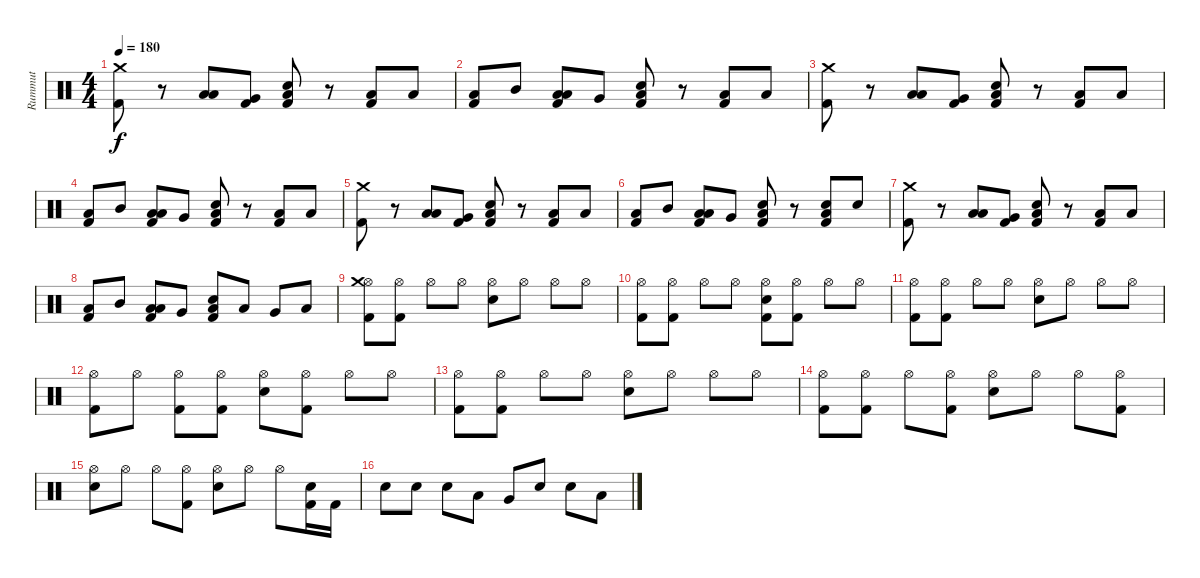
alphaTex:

\track ("Rummut" "Rummut") {instrument percussion}
\staff {score}
\articulation defaults
\ts (4 4)
\tempo 180
\clef neutral
\ks c
("Crash medium (hit)" "Kick (hit) 2").8{dy f} r.8 ("Low Floor Tom (hit)" "Low Tom (hit)").8 ("Very Low Tom (hit)" "Kick (hit) 2").8 ("Low Floor Tom (hit)" "Snare (hit) 2" "Kick (hit) 2").8 r.8 ("Low Floor Tom (hit)" "Kick (hit) 2").8 "Low Tom (hit)".8 |
("Low Floor Tom (hit)" "Kick (hit) 2").8 "Mid Tom (hit)".8 ("Low Floor Tom (hit)" "Low Tom (hit)" "Kick (hit) 2").8 "Very Low Tom (hit)".8 ("Low Floor Tom (hit)" "Snare (hit) 2" "Kick (hit) 2").8 r.8 ("Low Floor Tom (hit)" "Kick (hit) 2").8 "Low Tom (hit)".8 |
("Crash medium (hit)" "Kick (hit) 2").8 r.8 ("Low Floor Tom (hit)" "Low Tom (hit)").8 ("Very Low Tom (hit)" "Kick (hit) 2").8 ("Low Floor Tom (hit)" "Snare (hit) 2" "Kick (hit) 2").8 r.8 ("Low Floor Tom (hit)" "Kick (hit) 2").8 "Low Tom (hit)".8 |
("Low Floor Tom (hit)" "Kick (hit) 2").8 "Mid Tom (hit)".8 ("Low Floor Tom (hit)" "Low Tom (hit)" "Kick (hit) 2").8 "Very Low Tom (hit)".8 ("Low Floor Tom (hit)" "Snare (hit) 2" "Kick (hit) 2").8 r.8 ("Low Floor Tom (hit)" "Kick (hit) 2").8 "Low Tom (hit)".8 |
("Crash medium (hit)" "Kick (hit) 2").8 r.8 ("Low Floor Tom (hit)" "Low Tom (hit)").8 ("Very Low Tom (hit)" "Kick (hit) 2").8 ("Low Floor Tom (hit)" "Snare (hit) 2" "Kick (hit) 2").8 r.8 ("Low Floor Tom (hit)" "Kick (hit) 2").8 "Low Tom (hit)".8 |
("Low Floor Tom (hit)" "Kick (hit) 2").8 "Mid Tom (hit)".8 ("Low Floor Tom (hit)" "Low Tom (hit)" "Kick (hit) 2").8 "Very Low Tom (hit)".8 ("Low Floor Tom (hit)" "Snare (hit) 2" "Kick (hit) 2").8 r.8 ("Low Floor Tom (hit)" "Snare (hit) 2" "Kick (hit) 2").8 "Snare (hit) 2".8 |
("Crash medium (hit)" "Kick (hit) 2").8 r.8 ("Low Floor Tom (hit)" "Low Tom (hit)").8 ("Very Low Tom (hit)" "Kick (hit) 2").8 ("Low Floor Tom (hit)" "Snare (hit) 2" "Kick (hit) 2").8 r.8 ("Low Floor Tom (hit)" "Kick (hit) 2").8 "Low Tom (hit)".8 |
("Low Floor Tom (hit)" "Kick (hit) 2").8 "Mid Tom (hit)".8 ("Low Floor Tom (hit)" "Low Tom (hit)" "Kick (hit) 2").8 "Very Low Tom (hit)".8 ("Low Floor Tom (hit)" "Snare (hit) 2" "Kick (hit) 2").8 "Low Tom (hit)".8 "Very Low Tom (hit)".8 "Low Floor Tom (hit)".8 |
("Hi-Hat (open)" "Crash medium (hit)" "Kick (hit) 2").8 ("Hi-Hat (open)"{x} "Kick (hit) 2").8 "Hi-Hat (open)".8 "Hi-Hat (open)"{x}.8 ("Hi-Hat (open)" "Snare (hit) 2").8 "Hi-Hat (open)"{x}.8 "Hi-Hat (open)".8 "Hi-Hat (open)"{x}.8 |
("Hi-Hat (open)" "Kick (hit) 2").8 ("Hi-Hat (open)"{x} "Kick (hit) 2").8 "Hi-Hat (open)".8 "Hi-Hat (open)"{x}.8 ("Hi-Hat (open)" "Snare (hit) 2" "Kick (hit) 2").8 ("Hi-Hat (open)"{x} "Kick (hit) 2").8 "Hi-Hat (open)".8 "Hi-Hat (open)"{x}.8 |
("Hi-Hat (open)" "Kick (hit) 2").8 ("Hi-Hat (open)"{x} "Kick (hit) 2").8 "Hi-Hat (open)".8 "Hi-Hat (open)"{x}.8 ("Hi-Hat (open)" "Snare (hit) 2").8 "Hi-Hat (open)"{x}.8 "Hi-Hat (open)".8 "Hi-Hat (open)"{x}.8 |
("Hi-Hat (open)" "Kick (hit) 2").8 "Hi-Hat (open)"{x}.8 ("Hi-Hat (open)" "Kick (hit) 2").8 ("Hi-Hat (open)"{x} "Kick (hit) 2").8 ("Hi-Hat (open)" "Snare (hit) 2").8 ("Hi-Hat (open)"{x} "Kick (hit) 2").8 "Hi-Hat (open)".8 "Hi-Hat (open)"{x}.8 |
("Hi-Hat (open)" "Kick (hit) 2").8 ("Hi-Hat (open)"{x} "Kick (hit) 2").8 "Hi-Hat (open)".8 "Hi-Hat (open)"{x}.8 ("Hi-Hat (open)" "Snare (hit) 2").8 "Hi-Hat (open)"{x}.8 "Hi-Hat (open)".8 "Hi-Hat (open)"{x}.8 |
("Hi-Hat (open)" "Kick (hit) 2").8 ("Hi-Hat (open)"{x} "Kick (hit) 2").8 "Hi-Hat (open)".8 ("Hi-Hat (open)"{x} "Kick (hit) 2").8 ("Hi-Hat (open)" "Snare (hit) 2").8 "Hi-Hat (open)"{x}.8 "Hi-Hat (open)".8 ("Hi-Hat (open)"{x} "Kick (hit) 2").8 |
("Hi-Hat (open)" "Snare (hit) 2").8 "Hi-Hat (open)"{x}.8 "Hi-Hat (open)".8 ("Hi-Hat (open)"{x} "Kick (hit) 2").8 ("Hi-Hat (open)" "Snare (hit) 2").8 "Hi-Hat (open)"{x}.8 "Hi-Hat (open)".8 ("Snare (hit)"{x} "Kick (hit) 2").16 "Kick (hit) 2".16 |
"Snare (hit) 2".8 "Snare (hit) 2".8 "Snare (hit) 2".8 "Low Tom (hit)".8 "Very Low Tom (hit)".8 "Snare (hit) 2".8 "Snare (hit) 2".8 "Low Tom (hit)".8
